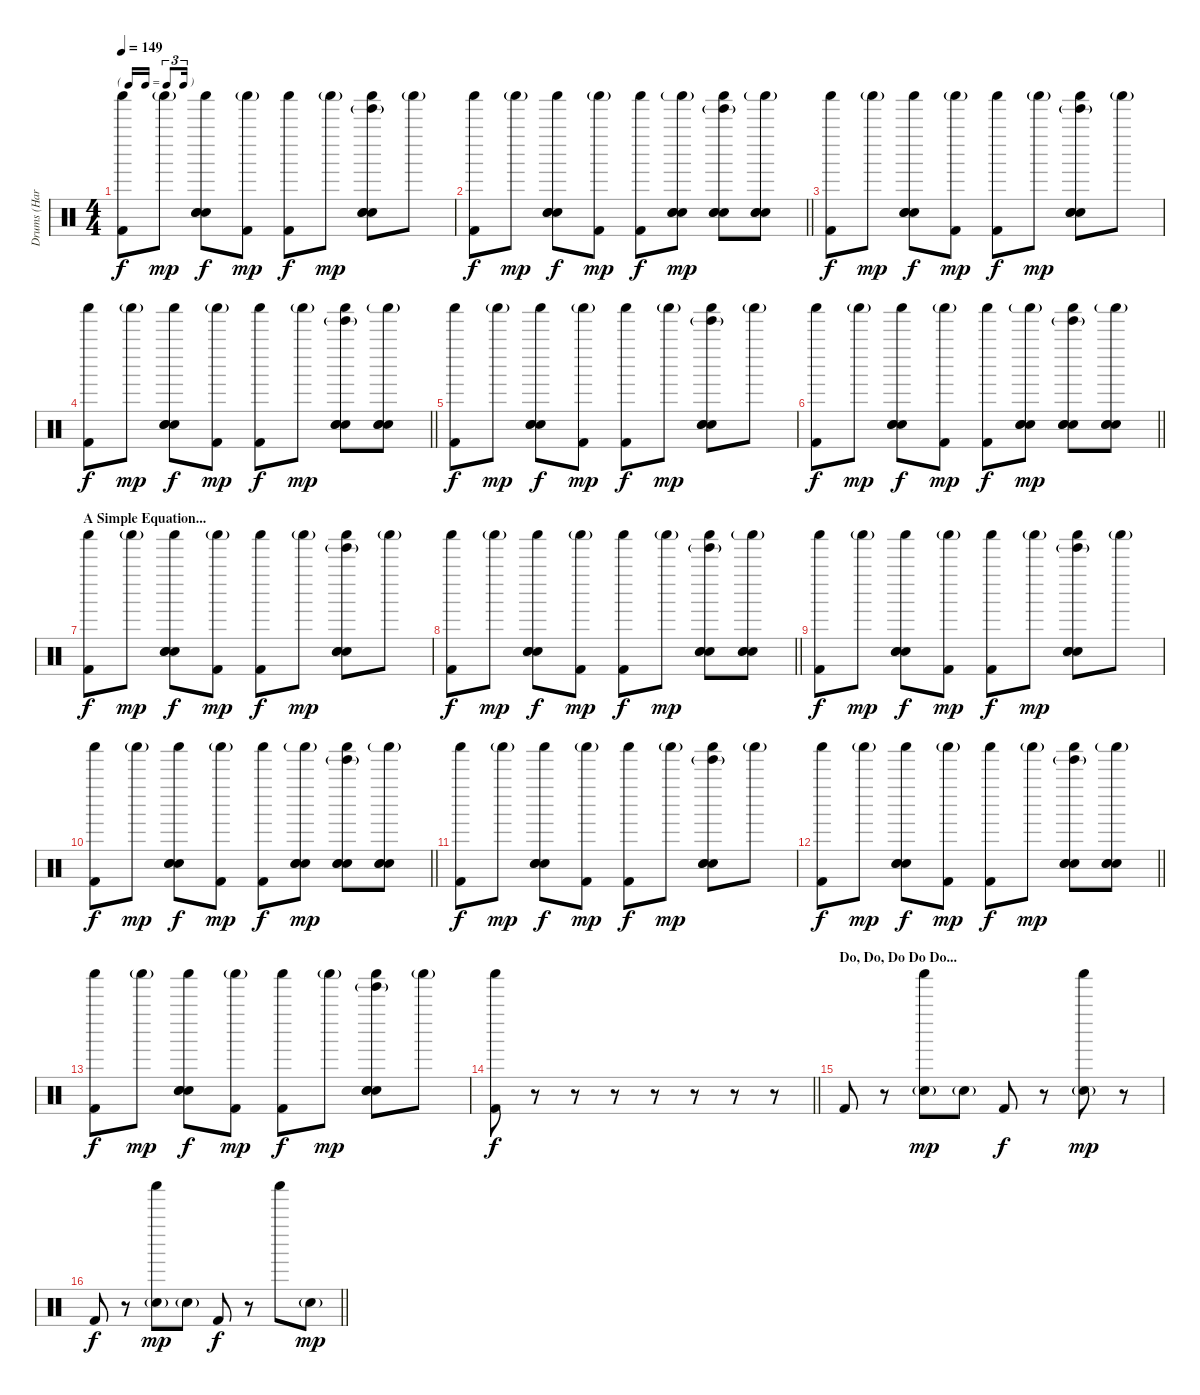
\track ("Drums (Harry)" "Drums (Har") {instrument percussion}
\staff {score}
\articulation defaults
\ts (4 4)
\tf triplet16th
\tempo 149
\clef neutral
\ks c
("Shaker (hit)" "Kick (hit) 2").8{dy f} "Shaker (hit)"{g}.8{dy mp} ("Shaker (hit)" "Hand Clap (hit)" "Hand Clap (hit)" "Hand Clap (hit)").8{dy f} ("Shaker (hit)"{g} "Kick (hit) 2").8{dy mp} ("Shaker (hit)" "Kick (hit) 2").8{dy f} "Shaker (hit)"{g}.8{dy mp} ("Tinkle Bell (hit)"{g} "Shaker (hit)" "Hand Clap (hit)" "Hand Clap (hit)" "Hand Clap (hit)").8 "Shaker (hit)"{g}.8 |
\barLineRight lightlight
("Shaker (hit)" "Kick (hit) 2").8{dy f} "Shaker (hit)"{g}.8{dy mp} ("Shaker (hit)" "Hand Clap (hit)" "Hand Clap (hit)" "Hand Clap (hit)").8{dy f} ("Shaker (hit)"{g} "Kick (hit) 2").8{dy mp} ("Shaker (hit)" "Kick (hit) 2").8{dy f} ("Shaker (hit)"{g} "Hand Clap (hit)" "Hand Clap (hit)" "Hand Clap (hit)").8{dy mp} ("Tinkle Bell (hit)"{g} "Shaker (hit)" "Hand Clap (hit)" "Hand Clap (hit)" "Hand Clap (hit)").8 ("Shaker (hit)"{g} "Hand Clap (hit)" "Hand Clap (hit)" "Hand Clap (hit)").8 |
("Shaker (hit)" "Kick (hit) 2").8{dy f} "Shaker (hit)"{g}.8{dy mp} ("Shaker (hit)" "Hand Clap (hit)" "Hand Clap (hit)" "Hand Clap (hit)").8{dy f} ("Shaker (hit)"{g} "Kick (hit) 2").8{dy mp} ("Shaker (hit)" "Kick (hit) 2").8{dy f} "Shaker (hit)"{g}.8{dy mp} ("Tinkle Bell (hit)"{g} "Shaker (hit)" "Hand Clap (hit)" "Hand Clap (hit)" "Hand Clap (hit)").8 "Shaker (hit)"{g}.8 |
\barLineRight lightlight
("Shaker (hit)" "Kick (hit) 2").8{dy f} "Shaker (hit)"{g}.8{dy mp} ("Shaker (hit)" "Hand Clap (hit)" "Hand Clap (hit)" "Hand Clap (hit)").8{dy f} ("Shaker (hit)"{g} "Kick (hit) 2").8{dy mp} ("Shaker (hit)" "Kick (hit) 2").8{dy f} "Shaker (hit)"{g}.8{dy mp} ("Tinkle Bell (hit)"{g} "Shaker (hit)" "Hand Clap (hit)" "Hand Clap (hit)" "Hand Clap (hit)").8 ("Shaker (hit)"{g} "Hand Clap (hit)" "Hand Clap (hit)" "Hand Clap (hit)").8 |
("Shaker (hit)" "Kick (hit) 2").8{dy f} "Shaker (hit)"{g}.8{dy mp} ("Shaker (hit)" "Hand Clap (hit)" "Hand Clap (hit)" "Hand Clap (hit)").8{dy f} ("Shaker (hit)"{g} "Kick (hit) 2").8{dy mp} ("Shaker (hit)" "Kick (hit) 2").8{dy f} "Shaker (hit)"{g}.8{dy mp} ("Tinkle Bell (hit)"{g} "Shaker (hit)" "Hand Clap (hit)" "Hand Clap (hit)" "Hand Clap (hit)").8 "Shaker (hit)"{g}.8 |
\barLineRight lightlight
("Shaker (hit)" "Kick (hit) 2").8{dy f} "Shaker (hit)"{g}.8{dy mp} ("Shaker (hit)" "Hand Clap (hit)" "Hand Clap (hit)" "Hand Clap (hit)").8{dy f} ("Shaker (hit)"{g} "Kick (hit) 2").8{dy mp} ("Shaker (hit)" "Kick (hit) 2").8{dy f} ("Shaker (hit)"{g} "Hand Clap (hit)" "Hand Clap (hit)" "Hand Clap (hit)").8{dy mp} ("Tinkle Bell (hit)"{g} "Shaker (hit)" "Hand Clap (hit)" "Hand Clap (hit)" "Hand Clap (hit)").8 ("Shaker (hit)"{g} "Hand Clap (hit)" "Hand Clap (hit)" "Hand Clap (hit)").8 |
\section ("" "A Simple Equation...")
("Shaker (hit)" "Kick (hit) 2").8{dy f} "Shaker (hit)"{g}.8{dy mp} ("Shaker (hit)" "Hand Clap (hit)" "Hand Clap (hit)" "Hand Clap (hit)").8{dy f} ("Shaker (hit)"{g} "Kick (hit) 2").8{dy mp} ("Shaker (hit)" "Kick (hit) 2").8{dy f} "Shaker (hit)"{g}.8{dy mp} ("Tinkle Bell (hit)"{g} "Shaker (hit)" "Hand Clap (hit)" "Hand Clap (hit)" "Hand Clap (hit)").8 "Shaker (hit)"{g}.8 |
\barLineRight lightlight
("Shaker (hit)" "Kick (hit) 2").8{dy f} "Shaker (hit)"{g}.8{dy mp} ("Shaker (hit)" "Hand Clap (hit)" "Hand Clap (hit)" "Hand Clap (hit)").8{dy f} ("Shaker (hit)"{g} "Kick (hit) 2").8{dy mp} ("Shaker (hit)" "Kick (hit) 2").8{dy f} "Shaker (hit)"{g}.8{dy mp} ("Tinkle Bell (hit)"{g} "Shaker (hit)" "Hand Clap (hit)" "Hand Clap (hit)" "Hand Clap (hit)").8 ("Shaker (hit)"{g} "Hand Clap (hit)" "Hand Clap (hit)" "Hand Clap (hit)").8 |
("Shaker (hit)" "Kick (hit) 2").8{dy f} "Shaker (hit)"{g}.8{dy mp} ("Shaker (hit)" "Hand Clap (hit)" "Hand Clap (hit)" "Hand Clap (hit)").8{dy f} ("Shaker (hit)"{g} "Kick (hit) 2").8{dy mp} ("Shaker (hit)" "Kick (hit) 2").8{dy f} "Shaker (hit)"{g}.8{dy mp} ("Tinkle Bell (hit)"{g} "Shaker (hit)" "Hand Clap (hit)" "Hand Clap (hit)" "Hand Clap (hit)").8 "Shaker (hit)"{g}.8 |
\barLineRight lightlight
("Shaker (hit)" "Kick (hit) 2").8{dy f} "Shaker (hit)"{g}.8{dy mp} ("Shaker (hit)" "Hand Clap (hit)" "Hand Clap (hit)" "Hand Clap (hit)").8{dy f} ("Shaker (hit)"{g} "Kick (hit) 2").8{dy mp} ("Shaker (hit)" "Kick (hit) 2").8{dy f} ("Shaker (hit)"{g} "Hand Clap (hit)" "Hand Clap (hit)" "Hand Clap (hit)").8{dy mp} ("Tinkle Bell (hit)"{g} "Shaker (hit)" "Hand Clap (hit)" "Hand Clap (hit)" "Hand Clap (hit)").8 ("Shaker (hit)"{g} "Hand Clap (hit)" "Hand Clap (hit)" "Hand Clap (hit)").8 |
("Shaker (hit)" "Kick (hit) 2").8{dy f} "Shaker (hit)"{g}.8{dy mp} ("Shaker (hit)" "Hand Clap (hit)" "Hand Clap (hit)" "Hand Clap (hit)").8{dy f} ("Shaker (hit)"{g} "Kick (hit) 2").8{dy mp} ("Shaker (hit)" "Kick (hit) 2").8{dy f} "Shaker (hit)"{g}.8{dy mp} ("Tinkle Bell (hit)"{g} "Shaker (hit)" "Hand Clap (hit)" "Hand Clap (hit)" "Hand Clap (hit)").8 "Shaker (hit)"{g}.8 |
\barLineRight lightlight
("Shaker (hit)" "Kick (hit) 2").8{dy f} "Shaker (hit)"{g}.8{dy mp} ("Shaker (hit)" "Hand Clap (hit)" "Hand Clap (hit)" "Hand Clap (hit)").8{dy f} ("Shaker (hit)"{g} "Kick (hit) 2").8{dy mp} ("Shaker (hit)" "Kick (hit) 2").8{dy f} "Shaker (hit)"{g}.8{dy mp} ("Tinkle Bell (hit)"{g} "Shaker (hit)" "Hand Clap (hit)" "Hand Clap (hit)" "Hand Clap (hit)").8 ("Shaker (hit)"{g} "Hand Clap (hit)" "Hand Clap (hit)" "Hand Clap (hit)").8 |
("Shaker (hit)" "Kick (hit) 2").8{dy f} "Shaker (hit)"{g}.8{dy mp} ("Shaker (hit)" "Hand Clap (hit)" "Hand Clap (hit)" "Hand Clap (hit)").8{dy f} ("Shaker (hit)"{g} "Kick (hit) 2").8{dy mp} ("Shaker (hit)" "Kick (hit) 2").8{dy f} "Shaker (hit)"{g}.8{dy mp} ("Tinkle Bell (hit)"{g} "Shaker (hit)" "Hand Clap (hit)" "Hand Clap (hit)" "Hand Clap (hit)").8 "Shaker (hit)"{g}.8 |
\barLineRight lightlight
("Shaker (hit)" "Kick (hit) 2").8{dy f} r.8 r.8 r.8 r.8 r.8 r.8 r.8 |
\section ("" "Do, Do, Do Do Do...")
"Kick (hit) 2".8 r.8 ("Shaker (hit)" "Hand Clap (hit)"{g}).8{dy mp} "Hand Clap (hit)"{g}.8 "Kick (hit) 2".8{dy f} r.8 ("Shaker (hit)" "Hand Clap (hit)"{g}).8{dy mp} r.8 |
\barLineRight lightlight "Kick (hit) 2".8{dy f}
r.8 ("Shaker (hit)" "Hand Clap (hit)"{g}).8{dy mp} "Hand Clap (hit)"{g}.8 "Kick (hit) 2".8{dy f} r.8 "Shaker (hit)".8 "Hand Clap (hit)"{g}.8{dy mp}
